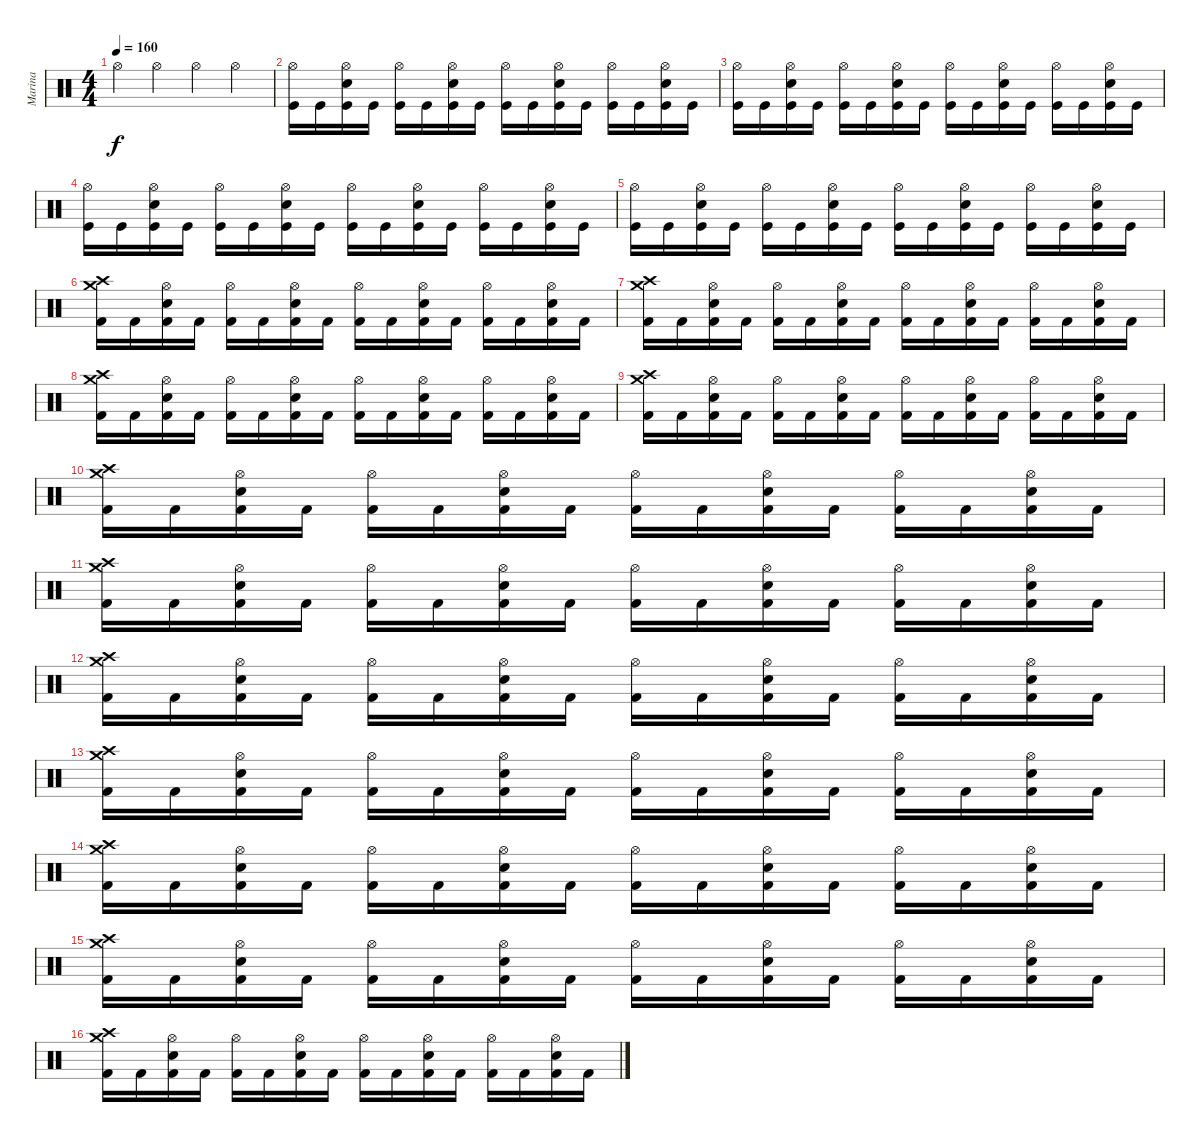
\track ("Marina" "Marina") {instrument percussion}
\staff {score}
\articulation defaults
\ts (4 4)
\tempo 160
\clef neutral
\ks c "Hi-Hat (open)".4{dy f} "Hi-Hat (open)".4 "Hi-Hat (open)".4 "Hi-Hat (open)".4
|
("Hi-Hat (open)" "Kick (hit)").16 "Kick (hit)".16 ("Hi-Hat (open)" "Snare (hit) 2" "Kick (hit)").16 "Kick (hit)".16 ("Hi-Hat (open)" "Kick (hit)").16 "Kick (hit)".16 ("Hi-Hat (open)" "Snare (hit) 2" "Kick (hit)").16 "Kick (hit)".16 ("Hi-Hat (open)" "Kick (hit)").16 "Kick (hit)".16 ("Hi-Hat (open)" "Snare (hit) 2" "Kick (hit)").16 "Kick (hit)".16 ("Hi-Hat (open)" "Kick (hit)").16 "Kick (hit)".16 ("Hi-Hat (open)" "Snare (hit) 2" "Kick (hit)").16 "Kick (hit)".16 |
("Hi-Hat (open)" "Kick (hit)").16 "Kick (hit)".16 ("Hi-Hat (open)" "Snare (hit) 2" "Kick (hit)").16 "Kick (hit)".16 ("Hi-Hat (open)" "Kick (hit)").16 "Kick (hit)".16 ("Hi-Hat (open)" "Snare (hit) 2" "Kick (hit)").16 "Kick (hit)".16 ("Hi-Hat (open)" "Kick (hit)").16 "Kick (hit)".16 ("Hi-Hat (open)" "Snare (hit) 2" "Kick (hit)").16 "Kick (hit)".16 ("Hi-Hat (open)" "Kick (hit)").16 "Kick (hit)".16 ("Hi-Hat (open)" "Snare (hit) 2" "Kick (hit)").16 "Kick (hit)".16 |
("Hi-Hat (open)" "Kick (hit)").16 "Kick (hit)".16 ("Hi-Hat (open)" "Snare (hit) 2" "Kick (hit)").16 "Kick (hit)".16 ("Hi-Hat (open)" "Kick (hit)").16 "Kick (hit)".16 ("Hi-Hat (open)" "Snare (hit) 2" "Kick (hit)").16 "Kick (hit)".16 ("Hi-Hat (open)" "Kick (hit)").16 "Kick (hit)".16 ("Hi-Hat (open)" "Snare (hit) 2" "Kick (hit)").16 "Kick (hit)".16 ("Hi-Hat (open)" "Kick (hit)").16 "Kick (hit)".16 ("Hi-Hat (open)" "Snare (hit) 2" "Kick (hit)").16 "Kick (hit)".16 |
("Hi-Hat (open)" "Kick (hit)").16 "Kick (hit)".16 ("Hi-Hat (open)" "Snare (hit) 2" "Kick (hit)").16 "Kick (hit)".16 ("Hi-Hat (open)" "Kick (hit)").16 "Kick (hit)".16 ("Hi-Hat (open)" "Snare (hit) 2" "Kick (hit)").16 "Kick (hit)".16 ("Hi-Hat (open)" "Kick (hit)").16 "Kick (hit)".16 ("Hi-Hat (open)" "Snare (hit) 2" "Kick (hit)").16 "Kick (hit)".16 ("Hi-Hat (open)" "Kick (hit)").16 "Kick (hit)".16 ("Hi-Hat (open)" "Snare (hit) 2" "Kick (hit)").16 "Kick (hit)".16 |
("Kick (hit) 2" "Crash high (hit)" "Crash medium (hit)").16 "Kick (hit) 2".16 ("Kick (hit) 2" "Electric Snare (hit)" "Hi-Hat (open)").16 "Kick (hit) 2".16 ("Kick (hit) 2" "Hi-Hat (open)").16 "Kick (hit) 2".16 ("Kick (hit) 2" "Electric Snare (hit)" "Hi-Hat (open)").16 "Kick (hit) 2".16 ("Kick (hit) 2" "Hi-Hat (open)").16 "Kick (hit) 2".16 ("Kick (hit) 2" "Electric Snare (hit)" "Hi-Hat (open)").16 "Kick (hit) 2".16 ("Kick (hit) 2" "Hi-Hat (open)").16 "Kick (hit) 2".16 ("Kick (hit) 2" "Electric Snare (hit)" "Hi-Hat (open)").16 "Kick (hit) 2".16 |
("Kick (hit) 2" "Crash high (hit)" "Crash medium (hit)").16 "Kick (hit) 2".16 ("Kick (hit) 2" "Electric Snare (hit)" "Hi-Hat (open)").16 "Kick (hit) 2".16 ("Kick (hit) 2" "Hi-Hat (open)").16 "Kick (hit) 2".16 ("Kick (hit) 2" "Electric Snare (hit)" "Hi-Hat (open)").16 "Kick (hit) 2".16 ("Kick (hit) 2" "Hi-Hat (open)").16 "Kick (hit) 2".16 ("Kick (hit) 2" "Electric Snare (hit)" "Hi-Hat (open)").16 "Kick (hit) 2".16 ("Kick (hit) 2" "Hi-Hat (open)").16 "Kick (hit) 2".16 ("Kick (hit) 2" "Electric Snare (hit)" "Hi-Hat (open)").16 "Kick (hit) 2".16 |
("Kick (hit) 2" "Crash high (hit)" "Crash medium (hit)").16 "Kick (hit) 2".16 ("Kick (hit) 2" "Electric Snare (hit)" "Hi-Hat (open)").16 "Kick (hit) 2".16 ("Kick (hit) 2" "Hi-Hat (open)").16 "Kick (hit) 2".16 ("Kick (hit) 2" "Electric Snare (hit)" "Hi-Hat (open)").16 "Kick (hit) 2".16 ("Kick (hit) 2" "Hi-Hat (open)").16 "Kick (hit) 2".16 ("Kick (hit) 2" "Electric Snare (hit)" "Hi-Hat (open)").16 "Kick (hit) 2".16 ("Kick (hit) 2" "Hi-Hat (open)").16 "Kick (hit) 2".16 ("Kick (hit) 2" "Electric Snare (hit)" "Hi-Hat (open)").16 "Kick (hit) 2".16 |
("Kick (hit) 2" "Crash high (hit)" "Crash medium (hit)").16 "Kick (hit) 2".16 ("Kick (hit) 2" "Electric Snare (hit)" "Hi-Hat (open)").16 "Kick (hit) 2".16 ("Kick (hit) 2" "Hi-Hat (open)").16 "Kick (hit) 2".16 ("Kick (hit) 2" "Electric Snare (hit)" "Hi-Hat (open)").16 "Kick (hit) 2".16 ("Kick (hit) 2" "Hi-Hat (open)").16 "Kick (hit) 2".16 ("Kick (hit) 2" "Electric Snare (hit)" "Hi-Hat (open)").16 "Kick (hit) 2".16 ("Kick (hit) 2" "Hi-Hat (open)").16 "Kick (hit) 2".16 ("Kick (hit) 2" "Electric Snare (hit)" "Hi-Hat (open)").16 "Kick (hit) 2".16 |
("Kick (hit) 2" "Crash high (hit)" "Crash medium (hit)").16 "Kick (hit) 2".16 ("Kick (hit) 2" "Electric Snare (hit)" "Hi-Hat (open)").16 "Kick (hit) 2".16 ("Kick (hit) 2" "Hi-Hat (open)").16 "Kick (hit) 2".16 ("Kick (hit) 2" "Electric Snare (hit)" "Hi-Hat (open)").16 "Kick (hit) 2".16 ("Kick (hit) 2" "Hi-Hat (open)").16 "Kick (hit) 2".16 ("Kick (hit) 2" "Electric Snare (hit)" "Hi-Hat (open)").16 "Kick (hit) 2".16 ("Kick (hit) 2" "Hi-Hat (open)").16 "Kick (hit) 2".16 ("Kick (hit) 2" "Electric Snare (hit)" "Hi-Hat (open)").16 "Kick (hit) 2".16 |
("Kick (hit) 2" "Crash high (hit)" "Crash medium (hit)").16 "Kick (hit) 2".16 ("Kick (hit) 2" "Electric Snare (hit)" "Hi-Hat (open)").16 "Kick (hit) 2".16 ("Kick (hit) 2" "Hi-Hat (open)").16 "Kick (hit) 2".16 ("Kick (hit) 2" "Electric Snare (hit)" "Hi-Hat (open)").16 "Kick (hit) 2".16 ("Kick (hit) 2" "Hi-Hat (open)").16 "Kick (hit) 2".16 ("Kick (hit) 2" "Electric Snare (hit)" "Hi-Hat (open)").16 "Kick (hit) 2".16 ("Kick (hit) 2" "Hi-Hat (open)").16 "Kick (hit) 2".16 ("Kick (hit) 2" "Electric Snare (hit)" "Hi-Hat (open)").16 "Kick (hit) 2".16 |
("Kick (hit) 2" "Crash high (hit)" "Crash medium (hit)").16 "Kick (hit) 2".16 ("Kick (hit) 2" "Electric Snare (hit)" "Hi-Hat (open)").16 "Kick (hit) 2".16 ("Kick (hit) 2" "Hi-Hat (open)").16 "Kick (hit) 2".16 ("Kick (hit) 2" "Electric Snare (hit)" "Hi-Hat (open)").16 "Kick (hit) 2".16 ("Kick (hit) 2" "Hi-Hat (open)").16 "Kick (hit) 2".16 ("Kick (hit) 2" "Electric Snare (hit)" "Hi-Hat (open)").16 "Kick (hit) 2".16 ("Kick (hit) 2" "Hi-Hat (open)").16 "Kick (hit) 2".16 ("Kick (hit) 2" "Electric Snare (hit)" "Hi-Hat (open)").16 "Kick (hit) 2".16 |
("Kick (hit) 2" "Crash high (hit)" "Crash medium (hit)").16 "Kick (hit) 2".16 ("Kick (hit) 2" "Electric Snare (hit)" "Hi-Hat (open)").16 "Kick (hit) 2".16 ("Kick (hit) 2" "Hi-Hat (open)").16 "Kick (hit) 2".16 ("Kick (hit) 2" "Electric Snare (hit)" "Hi-Hat (open)").16 "Kick (hit) 2".16 ("Kick (hit) 2" "Hi-Hat (open)").16 "Kick (hit) 2".16 ("Kick (hit) 2" "Electric Snare (hit)" "Hi-Hat (open)").16 "Kick (hit) 2".16 ("Kick (hit) 2" "Hi-Hat (open)").16 "Kick (hit) 2".16 ("Kick (hit) 2" "Electric Snare (hit)" "Hi-Hat (open)").16 "Kick (hit) 2".16 |
("Kick (hit) 2" "Crash high (hit)" "Crash medium (hit)").16 "Kick (hit) 2".16 ("Kick (hit) 2" "Electric Snare (hit)" "Hi-Hat (open)").16 "Kick (hit) 2".16 ("Kick (hit) 2" "Hi-Hat (open)").16 "Kick (hit) 2".16 ("Kick (hit) 2" "Electric Snare (hit)" "Hi-Hat (open)").16 "Kick (hit) 2".16 ("Kick (hit) 2" "Hi-Hat (open)").16 "Kick (hit) 2".16 ("Kick (hit) 2" "Electric Snare (hit)" "Hi-Hat (open)").16 "Kick (hit) 2".16 ("Kick (hit) 2" "Hi-Hat (open)").16 "Kick (hit) 2".16 ("Kick (hit) 2" "Electric Snare (hit)" "Hi-Hat (open)").16 "Kick (hit) 2".16 |
("Kick (hit) 2" "Crash high (hit)" "Crash medium (hit)").16 "Kick (hit) 2".16 ("Kick (hit) 2" "Electric Snare (hit)" "Hi-Hat (open)").16 "Kick (hit) 2".16 ("Kick (hit) 2" "Hi-Hat (open)").16 "Kick (hit) 2".16 ("Kick (hit) 2" "Electric Snare (hit)" "Hi-Hat (open)").16 "Kick (hit) 2".16 ("Kick (hit) 2" "Hi-Hat (open)").16 "Kick (hit) 2".16 ("Kick (hit) 2" "Electric Snare (hit)" "Hi-Hat (open)").16 "Kick (hit) 2".16 ("Kick (hit) 2" "Hi-Hat (open)").16 "Kick (hit) 2".16 ("Kick (hit) 2" "Electric Snare (hit)" "Hi-Hat (open)").16 "Kick (hit) 2".16 |
("Kick (hit) 2" "Crash high (hit)" "Crash medium (hit)").16 "Kick (hit) 2".16 ("Kick (hit) 2" "Electric Snare (hit)" "Hi-Hat (open)").16 "Kick (hit) 2".16 ("Kick (hit) 2" "Hi-Hat (open)").16 "Kick (hit) 2".16 ("Kick (hit) 2" "Electric Snare (hit)" "Hi-Hat (open)").16 "Kick (hit) 2".16 ("Kick (hit) 2" "Hi-Hat (open)").16 "Kick (hit) 2".16 ("Kick (hit) 2" "Electric Snare (hit)" "Hi-Hat (open)").16 "Kick (hit) 2".16 ("Kick (hit) 2" "Hi-Hat (open)").16 "Kick (hit) 2".16 ("Kick (hit) 2" "Electric Snare (hit)" "Hi-Hat (open)").16 "Kick (hit) 2".16
